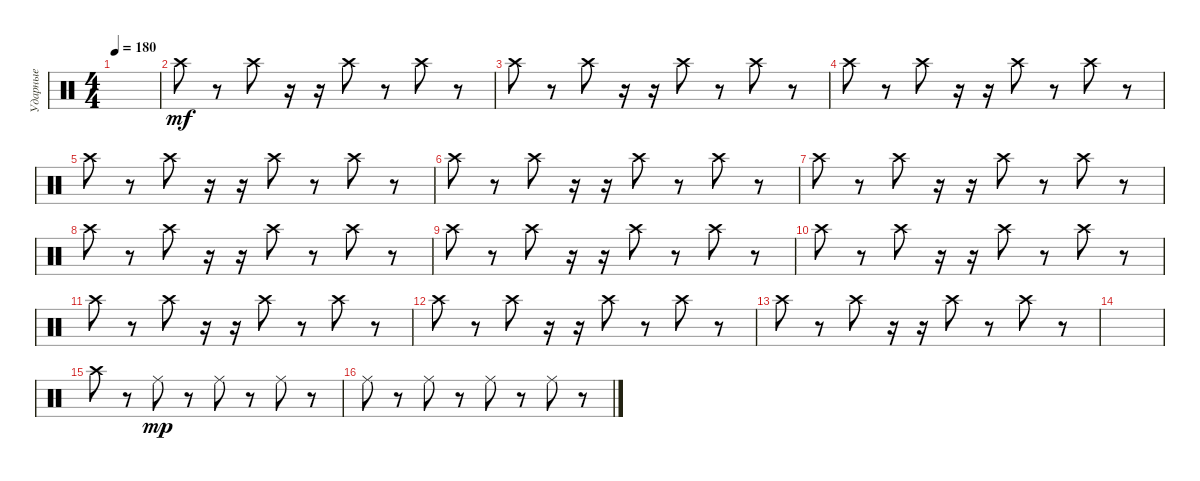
\track ("Ударные" "Ударные") {instrument percussion}
\staff {score}
\articulation defaults
\ts (4 4)
\tempo 180
\clef neutral
\ks c
|
"Crash high (hit)".8{dy mf} r.8 "Crash high (hit)".8 r.16 r.16 "Crash high (hit)".8 r.8 "Crash high (hit)".8 r.8 |
"Crash high (hit)".8 r.8 "Crash high (hit)".8 r.16 r.16 "Crash high (hit)".8 r.8 "Crash high (hit)".8 r.8 |
"Crash high (hit)".8 r.8 "Crash high (hit)".8 r.16 r.16 "Crash high (hit)".8 r.8 "Crash high (hit)".8 r.8 |
"Crash high (hit)".8 r.8 "Crash high (hit)".8 r.16 r.16 "Crash high (hit)".8 r.8 "Crash high (hit)".8 r.8 |
"Crash high (hit)".8 r.8 "Crash high (hit)".8 r.16 r.16 "Crash high (hit)".8 r.8 "Crash high (hit)".8 r.8 |
"Crash high (hit)".8 r.8 "Crash high (hit)".8 r.16 r.16 "Crash high (hit)".8 r.8 "Crash high (hit)".8 r.8 |
"Crash high (hit)".8 r.8 "Crash high (hit)".8 r.16 r.16 "Crash high (hit)".8 r.8 "Crash high (hit)".8 r.8 |
"Crash high (hit)".8 r.8 "Crash high (hit)".8 r.16 r.16 "Crash high (hit)".8 r.8 "Crash high (hit)".8 r.8 |
"Crash high (hit)".8 r.8 "Crash high (hit)".8 r.16 r.16 "Crash high (hit)".8 r.8 "Crash high (hit)".8 r.8 |
"Crash high (hit)".8 r.8 "Crash high (hit)".8 r.16 r.16 "Crash high (hit)".8 r.8 "Crash high (hit)".8 r.8 |
"Crash high (hit)".8 r.8 "Crash high (hit)".8 r.16 r.16 "Crash high (hit)".8 r.8 "Crash high (hit)".8 r.8 |
"Crash high (hit)".8 r.8 "Crash high (hit)".8 r.16 r.16 "Crash high (hit)".8 r.8 "Crash high (hit)".8 r.8 |
|
"Crash high (hit)".8 r.8 "Ride (middle)".8{dy mp} r.8 "Ride (middle)".8 r.8 "Ride (middle)".8 r.8 |
"Ride (middle)".8 r.8 "Ride (middle)".8 r.8 "Ride (middle)".8 r.8 "Ride (middle)".8 r.8
